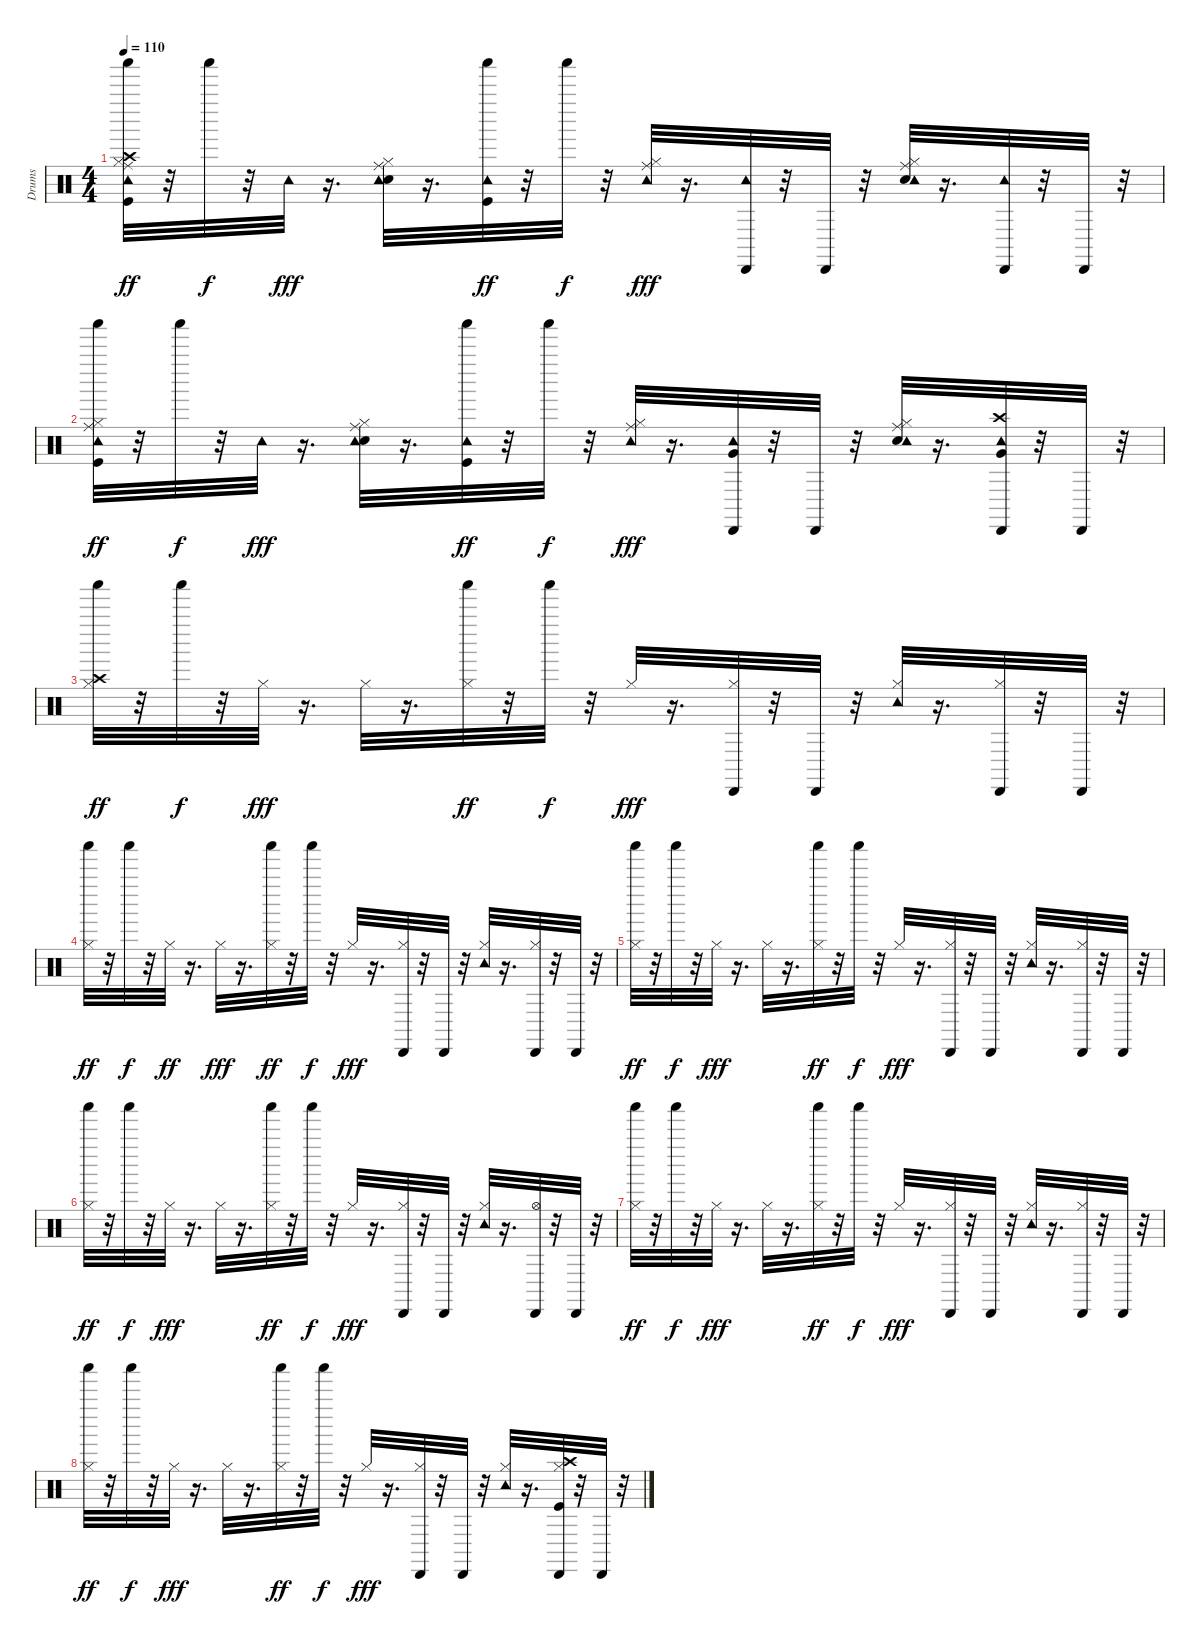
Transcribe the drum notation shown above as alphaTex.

\track ("Drums               " "Drums     ") {instrument percussion}
\staff {score}
\articulation defaults
\ts (4 4)
\tempo 110
\clef neutral
\ks c
("Kick (hit)" "Hi-Hat (closed)" "Crash high (hit)" "Ride (middle)" "Tambourine (hit)" "Shaker (hit)").32{dy ff} r.32 "Shaker (hit)".32{dy f} r.32 "Tambourine (hit)".32{dy fff} r.16{d} ("Electric Snare (hit)" "Hi-Hat (closed)" "Ride (middle)" "Tambourine (hit)").32 r.16{d} ("Kick (hit)" "Tambourine (hit)" "Shaker (hit)").32{dy ff} r.32 "Shaker (hit)".32{dy f} r.32 ("Hi-Hat (closed)" "Ride (middle)" "Tambourine (hit)").32{dy fff} r.16{d} ("Tambourine (hit)" "Cabasa (hit)").32 r.32 "Cabasa (hit)".32 r.32 ("Electric Snare (hit)" "Hi-Hat (closed)" "Ride (middle)" "Tambourine (hit)").32 r.16{d} ("Tambourine (hit)" "Cabasa (hit)").32 r.32 "Cabasa (hit)".32 r.32 |
("Kick (hit)" "Hi-Hat (closed)" "Ride (middle)" "Tambourine (hit)" "Shaker (hit)").32{dy ff} r.32 "Shaker (hit)".32{dy f} r.32 "Tambourine (hit)".32{dy fff} r.16{d} ("Electric Snare (hit)" "Hi-Hat (closed)" "Ride (middle)" "Tambourine (hit)").32 r.16{d} ("Kick (hit)" "Tambourine (hit)" "Shaker (hit)").32{dy ff} r.32 "Shaker (hit)".32{dy f} r.32 ("Hi-Hat (closed)" "Ride (middle)" "Tambourine (hit)").32{dy fff} r.16{d} ("Very Low Tom (hit)" "Tambourine (hit)" "Cabasa (hit)").32 r.32 "Cabasa (hit)".32 r.32 ("Electric Snare (hit)" "Hi-Hat (closed)" "Ride (middle)" "Tambourine (hit)").32 r.16{d} ("Very Low Tom (hit)" "Crash high (hit)" "Tambourine (hit)" "Cabasa (hit)").32 r.32 "Cabasa (hit)".32 r.32 |
("Hi-Hat (closed)" "Crash high (hit)" "Shaker (hit)").32{dy ff} r.32 "Shaker (hit)".32{dy f} r.32 "Hi-Hat (closed)".32{dy fff} r.16{d} "Hi-Hat (closed)".32 r.16{d} ("Hi-Hat (closed)" "Shaker (hit)").32{dy ff} r.32 "Shaker (hit)".32{dy f} r.32 "Hi-Hat (closed)".32{dy fff} r.16{d} ("Hi-Hat (closed)" "Cabasa (hit)").32 r.32 "Cabasa (hit)".32 r.32 ("Hi-Hat (closed)" "Tambourine (hit)").32 r.16{d} ("Hi-Hat (closed)" "Cabasa (hit)").32 r.32 "Cabasa (hit)".32 r.32 |
("Hi-Hat (closed)" "Shaker (hit)").32{dy ff} r.32 "Shaker (hit)".32{dy f} r.32 "Hi-Hat (closed)".32{dy ff} r.16{d} "Hi-Hat (closed)".32{dy fff} r.16{d} ("Hi-Hat (closed)" "Shaker (hit)").32{dy ff} r.32 "Shaker (hit)".32{dy f} r.32 "Hi-Hat (closed)".32{dy fff} r.16{d} ("Hi-Hat (closed)" "Cabasa (hit)").32 r.32 "Cabasa (hit)".32 r.32 ("Hi-Hat (closed)" "Tambourine (hit)").32 r.16{d} ("Hi-Hat (closed)" "Cabasa (hit)").32 r.32 "Cabasa (hit)".32 r.32 |
("Hi-Hat (closed)" "Shaker (hit)").32{dy ff} r.32 "Shaker (hit)".32{dy f} r.32 "Hi-Hat (closed)".32{dy fff} r.16{d} "Hi-Hat (closed)".32 r.16{d} ("Hi-Hat (closed)" "Shaker (hit)").32{dy ff} r.32 "Shaker (hit)".32{dy f} r.32 "Hi-Hat (closed)".32{dy fff} r.16{d} ("Hi-Hat (closed)" "Cabasa (hit)").32 r.32 "Cabasa (hit)".32 r.32 ("Hi-Hat (closed)" "Tambourine (hit)").32 r.16{d} ("Hi-Hat (closed)" "Cabasa (hit)").32 r.32 "Cabasa (hit)".32 r.32 |
("Hi-Hat (closed)" "Shaker (hit)").32{dy ff} r.32 "Shaker (hit)".32{dy f} r.32 "Hi-Hat (closed)".32{dy fff} r.16{d} "Hi-Hat (closed)".32 r.16{d} ("Hi-Hat (closed)" "Shaker (hit)").32{dy ff} r.32 "Shaker (hit)".32{dy f} r.32 "Hi-Hat (closed)".32{dy fff} r.16{d} ("Hi-Hat (closed)" "Cabasa (hit)").32 r.32 "Cabasa (hit)".32 r.32 ("Hi-Hat (closed)" "Tambourine (hit)").32 r.16{d} ("Hi-Hat (open)" "Cabasa (hit)").32 r.32 "Cabasa (hit)".32 r.32 |
("Hi-Hat (closed)" "Shaker (hit)").32{dy ff} r.32 "Shaker (hit)".32{dy f} r.32 "Hi-Hat (closed)".32{dy fff} r.16{d} "Hi-Hat (closed)".32 r.16{d} ("Hi-Hat (closed)" "Shaker (hit)").32{dy ff} r.32 "Shaker (hit)".32{dy f} r.32 "Hi-Hat (closed)".32{dy fff} r.16{d} ("Hi-Hat (closed)" "Cabasa (hit)").32 r.32 "Cabasa (hit)".32 r.32 ("Hi-Hat (closed)" "Tambourine (hit)").32 r.16{d} ("Hi-Hat (closed)" "Cabasa (hit)").32 r.32 "Cabasa (hit)".32 r.32 |
("Hi-Hat (closed)" "Shaker (hit)").32{dy ff} r.32 "Shaker (hit)".32{dy f} r.32 "Hi-Hat (closed)".32{dy fff} r.16{d} "Hi-Hat (closed)".32 r.16{d} ("Hi-Hat (closed)" "Shaker (hit)").32{dy ff} r.32 "Shaker (hit)".32{dy f} r.32 "Hi-Hat (closed)".32{dy fff} r.16{d} ("Hi-Hat (closed)" "Cabasa (hit)").32 r.32 "Cabasa (hit)".32 r.32 ("Hi-Hat (closed)" "Tambourine (hit)").32 r.16{d} ("Kick (hit)" "Hi-Hat (closed)" "Crash high (hit)" "Cabasa (hit)").32 r.32 "Cabasa (hit)".32 r.32
